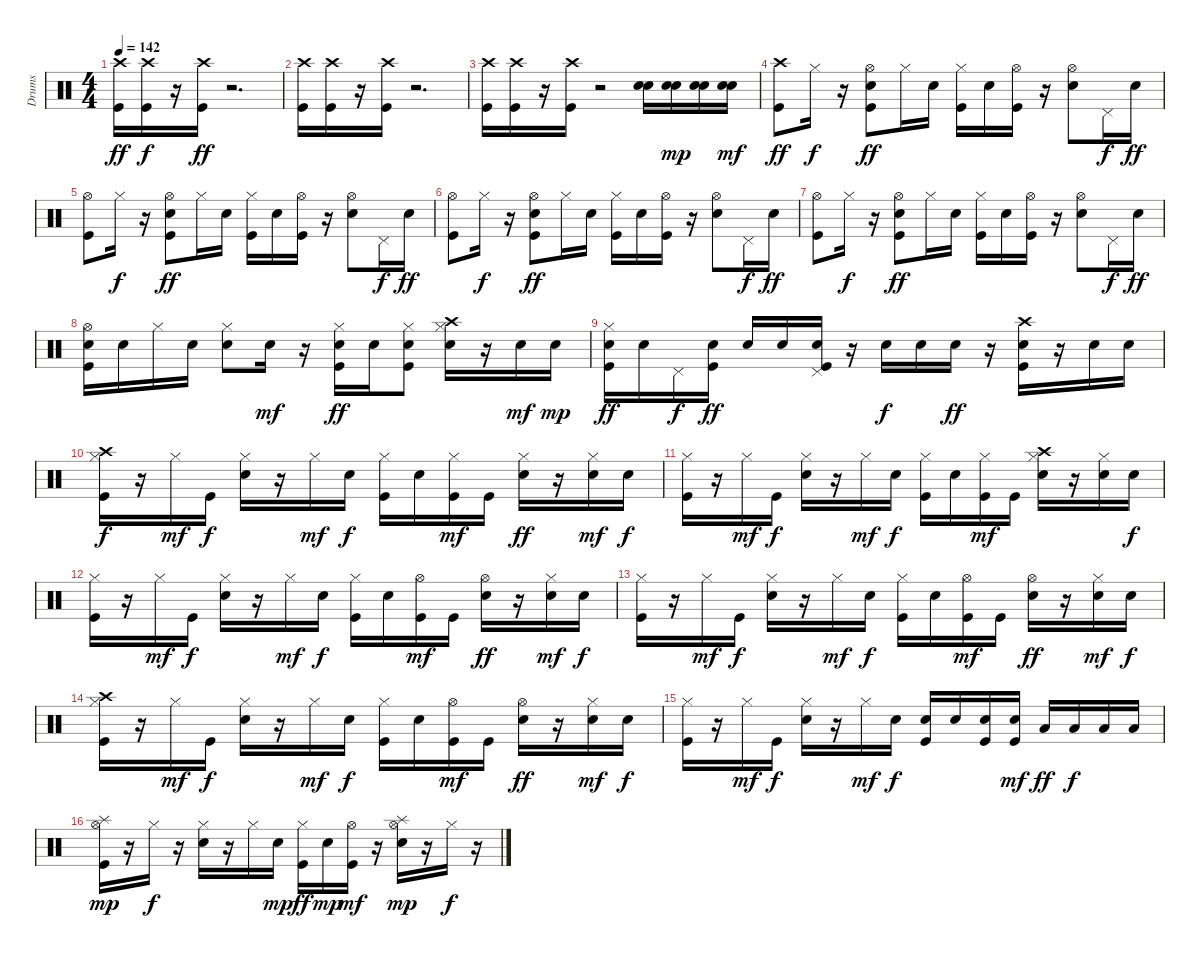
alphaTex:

\track ("Drums" "Drums") {instrument percussion}
\staff {score}
\articulation defaults
\ts (4 4)
\tempo 142
\clef neutral
\ks c
("Crash high (hit)" "Kick (hit)").16{dy ff} ("Crash high (hit)" "Kick (hit)").16{dy f} r.16 ("Kick (hit)" "Crash high (hit)").16{dy ff} r.2{d} |
("Kick (hit)" "Crash high (hit)").16 ("Crash high (hit)" "Kick (hit)").16 r.16 ("Crash high (hit)" "Kick (hit)").16 r.2{d} |
("Kick (hit)" "Crash high (hit)").16 ("Crash high (hit)" "Kick (hit)").16 r.16 ("Kick (hit)" "Crash high (hit)").16 r.2 ("Snare (hit) 2" "Electric Snare (hit)").16 ("Snare (hit) 2" "Electric Snare (hit)").16{dy mp} ("Snare (hit) 2" "Electric Snare (hit)").16 ("Snare (hit) 2" "Electric Snare (hit)").16{dy mf} |
("Kick (hit)" "Crash high (hit)").8{dy ff} "Hi-Hat (closed)".16{dy f} r.16 ("Kick (hit)" "Hi-Hat (open)" "Electric Snare (hit)").8{dy ff} "Hi-Hat (closed)".16 "Electric Snare (hit)".16 ("Kick (hit)" "Hi-Hat (closed)").16 "Electric Snare (hit)".16 ("Hi-Hat (open)" "Kick (hit)").16 r.16 ("Electric Snare (hit)" "Hi-Hat (open)").8 "Pedal Hi-Hat (hit)".16{dy f} "Electric Snare (hit)".16{dy ff} |
("Kick (hit)" "Hi-Hat (open)").8 "Hi-Hat (closed)".16{dy f} r.16 ("Kick (hit)" "Hi-Hat (open)" "Electric Snare (hit)").8{dy ff} "Hi-Hat (closed)".16 "Electric Snare (hit)".16 ("Kick (hit)" "Hi-Hat (closed)").16 "Electric Snare (hit)".16 ("Hi-Hat (open)" "Kick (hit)").16 r.16 ("Electric Snare (hit)" "Hi-Hat (open)").8 "Pedal Hi-Hat (hit)".16{dy f} "Electric Snare (hit)".16{dy ff} |
("Kick (hit)" "Hi-Hat (open)").8 "Hi-Hat (closed)".16{dy f} r.16 ("Kick (hit)" "Hi-Hat (open)" "Electric Snare (hit)").8{dy ff} "Hi-Hat (closed)".16 "Electric Snare (hit)".16 ("Kick (hit)" "Hi-Hat (closed)").16 "Electric Snare (hit)".16 ("Hi-Hat (open)" "Kick (hit)").16 r.16 ("Electric Snare (hit)" "Hi-Hat (open)").8 "Pedal Hi-Hat (hit)".16{dy f} "Electric Snare (hit)".16{dy ff} |
("Kick (hit)" "Hi-Hat (open)").8 "Hi-Hat (closed)".16{dy f} r.16 ("Kick (hit)" "Hi-Hat (open)" "Electric Snare (hit)").8{dy ff} "Hi-Hat (closed)".16 "Electric Snare (hit)".16 ("Kick (hit)" "Hi-Hat (closed)").16 "Electric Snare (hit)".16 ("Hi-Hat (open)" "Kick (hit)").16 r.16 ("Electric Snare (hit)" "Hi-Hat (open)").8 "Pedal Hi-Hat (hit)".16{dy f} "Electric Snare (hit)".16{dy ff} |
("Electric Snare (hit)" "Hi-Hat (open)" "Kick (hit)").16 "Electric Snare (hit)".16 "Hi-Hat (closed)".16 "Electric Snare (hit)".16 ("Hi-Hat (closed)" "Electric Snare (hit)").8 "Electric Snare (hit)".16{dy mf} r.16 ("Kick (hit)" "Hi-Hat (closed)" "Electric Snare (hit)").16{dy ff} "Electric Snare (hit)".16 ("Electric Snare (hit)" "Kick (hit)" "Hi-Hat (closed)").8 ("Crash high (hit)" "Electric Snare (hit)" "Hi-Hat (closed)").16 r.16 "Electric Snare (hit)".16{dy mf} "Electric Snare (hit)".16{dy mp} |
("Electric Snare (hit)" "Hi-Hat (closed)" "Kick (hit)").16{dy ff} "Electric Snare (hit)".16 "Pedal Hi-Hat (hit)".16{dy f} ("Electric Snare (hit)" "Kick (hit)").16{dy ff} "Electric Snare (hit)".16 "Electric Snare (hit)".16 ("Electric Snare (hit)" "Kick (hit)" "Pedal Hi-Hat (hit)").16 r.16 "Electric Snare (hit)".16{dy f} "Electric Snare (hit)".16 "Electric Snare (hit)".16{dy ff} r.16 ("Electric Snare (hit)" "Kick (hit)" "Crash high (hit)").16 r.16 "Electric Snare (hit)".16 "Electric Snare (hit)".16 |
("Crash high (hit)" "Kick (hit)" "Hi-Hat (closed)").16{dy f} r.16 "Hi-Hat (closed)".16{dy mf} "Kick (hit)".16{dy f} ("Hi-Hat (closed)" "Electric Snare (hit)").16 r.16 "Hi-Hat (closed)".16{dy mf} "Electric Snare (hit)".16{dy f} ("Hi-Hat (closed)" "Kick (hit)").16 "Electric Snare (hit)".16 ("Kick (hit)" "Hi-Hat (closed)").16{dy mf} "Kick (hit)".16 ("Electric Snare (hit)" "Hi-Hat (closed)").16{dy ff} r.16 ("Electric Snare (hit)" "Hi-Hat (closed)").16{dy mf} "Electric Snare (hit)".16{dy f} |
("Kick (hit)" "Hi-Hat (closed)").16 r.16 "Hi-Hat (closed)".16{dy mf} "Kick (hit)".16{dy f} ("Hi-Hat (closed)" "Electric Snare (hit)").16 r.16 "Hi-Hat (closed)".16{dy mf} "Electric Snare (hit)".16{dy f} ("Hi-Hat (closed)" "Kick (hit)").16 "Electric Snare (hit)".16 ("Kick (hit)" "Hi-Hat (closed)").16{dy mf} "Kick (hit)".16 ("Electric Snare (hit)" "Hi-Hat (closed)" "Crash high (hit)").16 r.16 ("Electric Snare (hit)" "Hi-Hat (closed)").16 "Electric Snare (hit)".16{dy f} |
("Hi-Hat (closed)" "Kick (hit)").16 r.16 "Hi-Hat (closed)".16{dy mf} "Kick (hit)".16{dy f} ("Hi-Hat (closed)" "Electric Snare (hit)").16 r.16 "Hi-Hat (closed)".16{dy mf} "Electric Snare (hit)".16{dy f} ("Hi-Hat (closed)" "Kick (hit)").16 "Electric Snare (hit)".16 ("Kick (hit)" "Hi-Hat (open)").16{dy mf} "Kick (hit)".16 ("Electric Snare (hit)" "Hi-Hat (open)").16{dy ff} r.16 ("Electric Snare (hit)" "Hi-Hat (closed)").16{dy mf} "Electric Snare (hit)".16{dy f} |
("Kick (hit)" "Hi-Hat (closed)").16 r.16 "Hi-Hat (closed)".16{dy mf} "Kick (hit)".16{dy f} ("Hi-Hat (closed)" "Electric Snare (hit)").16 r.16 "Hi-Hat (closed)".16{dy mf} "Electric Snare (hit)".16{dy f} ("Hi-Hat (closed)" "Kick (hit)").16 "Electric Snare (hit)".16 ("Kick (hit)" "Hi-Hat (open)").16{dy mf} "Kick (hit)".16 ("Electric Snare (hit)" "Hi-Hat (open)").16{dy ff} r.16 ("Electric Snare (hit)" "Hi-Hat (closed)").16{dy mf} "Electric Snare (hit)".16{dy f} |
("Crash high (hit)" "Kick (hit)" "Hi-Hat (closed)").16 r.16 "Hi-Hat (closed)".16{dy mf} "Kick (hit)".16{dy f} ("Hi-Hat (closed)" "Electric Snare (hit)").16 r.16 "Hi-Hat (closed)".16{dy mf} "Electric Snare (hit)".16{dy f} ("Hi-Hat (closed)" "Kick (hit)").16 "Electric Snare (hit)".16 ("Kick (hit)" "Hi-Hat (open)").16{dy mf} "Kick (hit)".16 ("Electric Snare (hit)" "Hi-Hat (open)").16{dy ff} r.16 ("Electric Snare (hit)" "Hi-Hat (closed)").16{dy mf} "Electric Snare (hit)".16{dy f} |
("Kick (hit)" "Hi-Hat (closed)").16 r.16 "Hi-Hat (closed)".16{dy mf} "Kick (hit)".16{dy f} ("Hi-Hat (closed)" "Electric Snare (hit)").16 r.16 "Hi-Hat (closed)".16{dy mf} "Electric Snare (hit)".16{dy f} ("Electric Snare (hit)" "Kick (hit)").16 "Electric Snare (hit)".16 ("Electric Snare (hit)" "Kick (hit)").16 ("Electric Snare (hit)" "Kick (hit)").16{dy mf} "Low Tom (hit)".16{dy ff} "Low Tom (hit)".16{dy f} "Low Tom (hit)".16 "Low Tom (hit)".16 |
("Splash (hit)" "Hi-Hat (open)" "Kick (hit)").16{dy mp} r.16 "Hi-Hat (closed)".16{dy f} r.16 ("Electric Snare (hit)" "Hi-Hat (closed)").16 r.16 "Hi-Hat (closed)".16 "Electric Snare (hit)".16{dy mp} ("Kick (hit)" "Hi-Hat (closed)").16{dy ff} "Electric Snare (hit)".16{dy mp} ("Kick (hit)" "Hi-Hat (open)").16{dy mf} r.16 ("Splash (hit)" "Hi-Hat (open)" "Electric Snare (hit)").16{dy mp} r.16 "Hi-Hat (closed)".16{dy f} r.16
